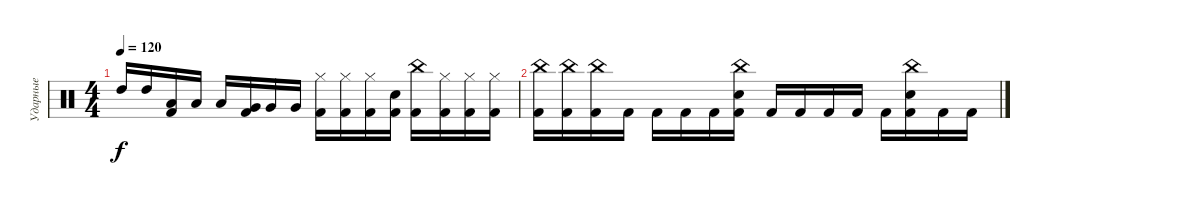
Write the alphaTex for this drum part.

\track ("Ударные" "Ударные") {instrument percussion}
\staff {score}
\articulation defaults
\ts (4 4)
\tempo 120
\clef neutral
\ks c "High Tom (hit)".16{dy f} "High Tom (hit)".16
("Low Tom (hit)" "Kick (hit) 2").16 "Low Tom (hit)".16 "Low Tom (hit)".16 ("Very Low Tom (hit)" "Kick (hit) 2").16 "Very Low Tom (hit)".16 "Very Low Tom (hit)".16 ("Hi-Hat (closed)" "Kick (hit) 2").16 ("Hi-Hat (closed)" "Kick (hit) 2").16 ("Hi-Hat (closed)" "Kick (hit) 2").16 ("Snare (hit) 2" "Kick (hit) 2").16 ("China (hit)" "Kick (hit) 2").16 ("Hi-Hat (closed)" "Kick (hit) 2").16 ("Hi-Hat (closed)" "Kick (hit) 2").16 ("Hi-Hat (closed)" "Kick (hit) 2").16 |
("China (hit)" "Kick (hit) 2").16 ("China (hit)" "Kick (hit) 2").16 ("China (hit)" "Kick (hit) 2").16 "Kick (hit) 2".16 "Kick (hit) 2".16 "Kick (hit) 2".16 "Kick (hit) 2".16 ("China (hit)" "Snare (hit) 2" "Kick (hit) 2").16 "Kick (hit) 2".16 "Kick (hit) 2".16 "Kick (hit) 2".16 "Kick (hit) 2".16 "Kick (hit) 2".16 ("China (hit)" "Snare (hit) 2" "Kick (hit) 2").16 "Kick (hit) 2".16 "Kick (hit) 2".16
